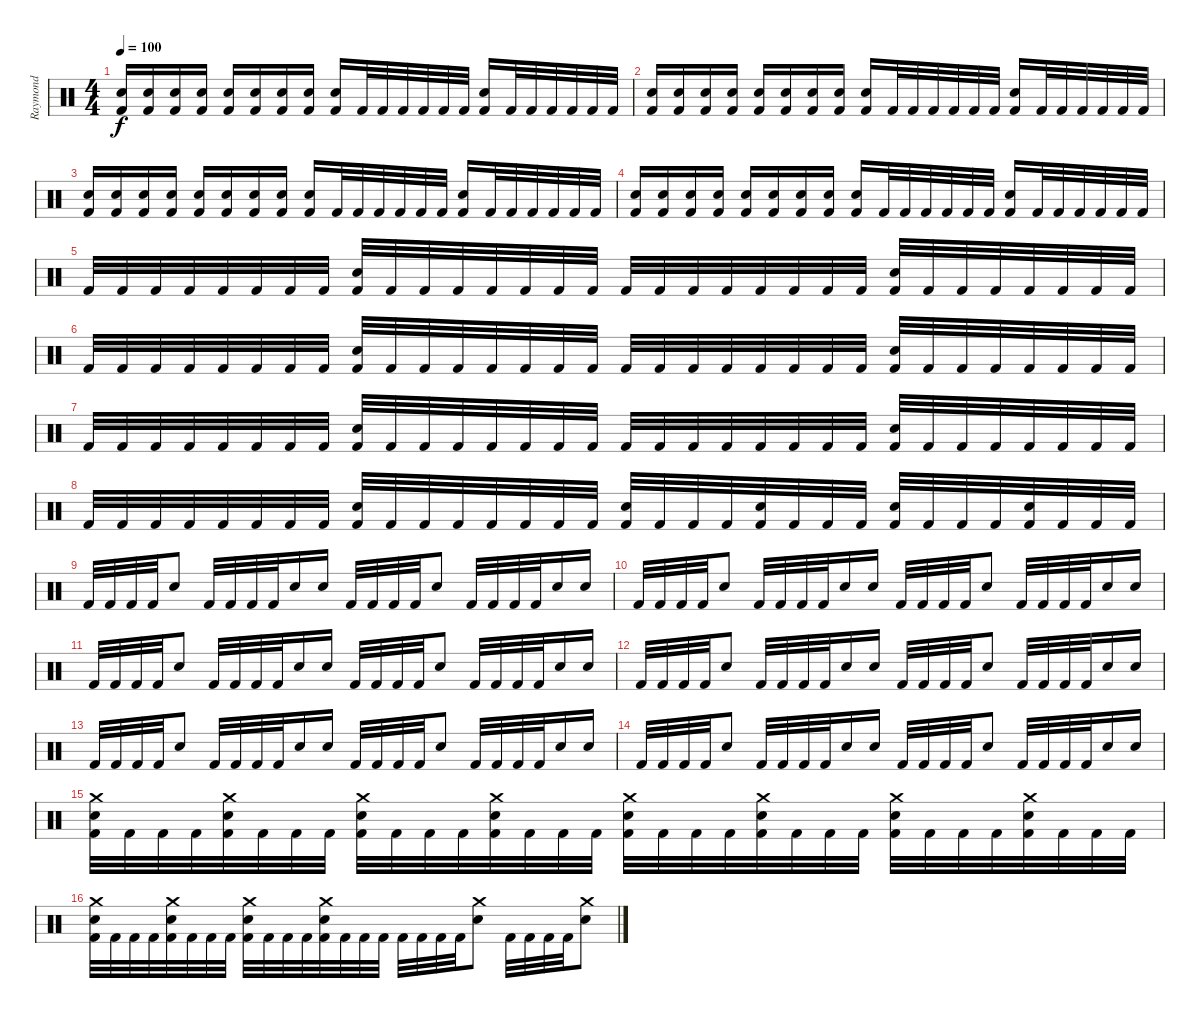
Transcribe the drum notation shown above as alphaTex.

\track ("Raymond" "Raymond") {instrument percussion}
\staff {score}
\articulation defaults
\ts (4 4)
\tempo 100
\clef neutral
\ks c
("Snare (hit) 2" "Kick (hit) 2").16{dy f} ("Snare (hit) 2" "Kick (hit) 2").16 ("Snare (hit) 2" "Kick (hit) 2").16 ("Snare (hit) 2" "Kick (hit) 2").16 ("Snare (hit) 2" "Kick (hit) 2").16 ("Snare (hit) 2" "Kick (hit) 2").16 ("Snare (hit) 2" "Kick (hit) 2").16 ("Snare (hit) 2" "Kick (hit) 2").16 ("Snare (hit) 2" "Kick (hit) 2").16 "Kick (hit) 2".32 "Kick (hit) 2".32 "Kick (hit) 2".32 "Kick (hit) 2".32 "Kick (hit) 2".32 "Kick (hit) 2".32 ("Snare (hit) 2" "Kick (hit) 2").16 "Kick (hit) 2".32 "Kick (hit) 2".32 "Kick (hit) 2".32 "Kick (hit) 2".32 "Kick (hit) 2".32 "Kick (hit) 2".32 |
("Snare (hit) 2" "Kick (hit) 2").16 ("Snare (hit) 2" "Kick (hit) 2").16 ("Snare (hit) 2" "Kick (hit) 2").16 ("Snare (hit) 2" "Kick (hit) 2").16 ("Snare (hit) 2" "Kick (hit) 2").16 ("Snare (hit) 2" "Kick (hit) 2").16 ("Snare (hit) 2" "Kick (hit) 2").16 ("Snare (hit) 2" "Kick (hit) 2").16 ("Snare (hit) 2" "Kick (hit) 2").16 "Kick (hit) 2".32 "Kick (hit) 2".32 "Kick (hit) 2".32 "Kick (hit) 2".32 "Kick (hit) 2".32 "Kick (hit) 2".32 ("Snare (hit) 2" "Kick (hit) 2").16 "Kick (hit) 2".32 "Kick (hit) 2".32 "Kick (hit) 2".32 "Kick (hit) 2".32 "Kick (hit) 2".32 "Kick (hit) 2".32 |
("Snare (hit) 2" "Kick (hit) 2").16 ("Snare (hit) 2" "Kick (hit) 2").16 ("Snare (hit) 2" "Kick (hit) 2").16 ("Snare (hit) 2" "Kick (hit) 2").16 ("Snare (hit) 2" "Kick (hit) 2").16 ("Snare (hit) 2" "Kick (hit) 2").16 ("Snare (hit) 2" "Kick (hit) 2").16 ("Snare (hit) 2" "Kick (hit) 2").16 ("Snare (hit) 2" "Kick (hit) 2").16 "Kick (hit) 2".32 "Kick (hit) 2".32 "Kick (hit) 2".32 "Kick (hit) 2".32 "Kick (hit) 2".32 "Kick (hit) 2".32 ("Snare (hit) 2" "Kick (hit) 2").16 "Kick (hit) 2".32 "Kick (hit) 2".32 "Kick (hit) 2".32 "Kick (hit) 2".32 "Kick (hit) 2".32 "Kick (hit) 2".32 |
("Snare (hit) 2" "Kick (hit) 2").16 ("Snare (hit) 2" "Kick (hit) 2").16 ("Snare (hit) 2" "Kick (hit) 2").16 ("Snare (hit) 2" "Kick (hit) 2").16 ("Snare (hit) 2" "Kick (hit) 2").16 ("Snare (hit) 2" "Kick (hit) 2").16 ("Snare (hit) 2" "Kick (hit) 2").16 ("Snare (hit) 2" "Kick (hit) 2").16 ("Snare (hit) 2" "Kick (hit) 2").16 "Kick (hit) 2".32 "Kick (hit) 2".32 "Kick (hit) 2".32 "Kick (hit) 2".32 "Kick (hit) 2".32 "Kick (hit) 2".32 ("Snare (hit) 2" "Kick (hit) 2").16 "Kick (hit) 2".32 "Kick (hit) 2".32 "Kick (hit) 2".32 "Kick (hit) 2".32 "Kick (hit) 2".32 "Kick (hit) 2".32 |
"Kick (hit) 2".32 "Kick (hit) 2".32 "Kick (hit) 2".32 "Kick (hit) 2".32 "Kick (hit) 2".32 "Kick (hit) 2".32 "Kick (hit) 2".32 "Kick (hit) 2".32 ("Snare (hit) 2" "Kick (hit) 2").32 "Kick (hit) 2".32 "Kick (hit) 2".32 "Kick (hit) 2".32 "Kick (hit) 2".32 "Kick (hit) 2".32 "Kick (hit) 2".32 "Kick (hit) 2".32 "Kick (hit) 2".32 "Kick (hit) 2".32 "Kick (hit) 2".32 "Kick (hit) 2".32 "Kick (hit) 2".32 "Kick (hit) 2".32 "Kick (hit) 2".32 "Kick (hit) 2".32 ("Snare (hit) 2" "Kick (hit) 2").32 "Kick (hit) 2".32 "Kick (hit) 2".32 "Kick (hit) 2".32 "Kick (hit) 2".32 "Kick (hit) 2".32 "Kick (hit) 2".32 "Kick (hit) 2".32 |
"Kick (hit) 2".32 "Kick (hit) 2".32 "Kick (hit) 2".32 "Kick (hit) 2".32 "Kick (hit) 2".32 "Kick (hit) 2".32 "Kick (hit) 2".32 "Kick (hit) 2".32 ("Snare (hit) 2" "Kick (hit) 2").32 "Kick (hit) 2".32 "Kick (hit) 2".32 "Kick (hit) 2".32 "Kick (hit) 2".32 "Kick (hit) 2".32 "Kick (hit) 2".32 "Kick (hit) 2".32 "Kick (hit) 2".32 "Kick (hit) 2".32 "Kick (hit) 2".32 "Kick (hit) 2".32 "Kick (hit) 2".32 "Kick (hit) 2".32 "Kick (hit) 2".32 "Kick (hit) 2".32 ("Snare (hit) 2" "Kick (hit) 2").32 "Kick (hit) 2".32 "Kick (hit) 2".32 "Kick (hit) 2".32 "Kick (hit) 2".32 "Kick (hit) 2".32 "Kick (hit) 2".32 "Kick (hit) 2".32 |
"Kick (hit) 2".32 "Kick (hit) 2".32 "Kick (hit) 2".32 "Kick (hit) 2".32 "Kick (hit) 2".32 "Kick (hit) 2".32 "Kick (hit) 2".32 "Kick (hit) 2".32 ("Snare (hit) 2" "Kick (hit) 2").32 "Kick (hit) 2".32 "Kick (hit) 2".32 "Kick (hit) 2".32 "Kick (hit) 2".32 "Kick (hit) 2".32 "Kick (hit) 2".32 "Kick (hit) 2".32 "Kick (hit) 2".32 "Kick (hit) 2".32 "Kick (hit) 2".32 "Kick (hit) 2".32 "Kick (hit) 2".32 "Kick (hit) 2".32 "Kick (hit) 2".32 "Kick (hit) 2".32 ("Snare (hit) 2" "Kick (hit) 2").32 "Kick (hit) 2".32 "Kick (hit) 2".32 "Kick (hit) 2".32 "Kick (hit) 2".32 "Kick (hit) 2".32 "Kick (hit) 2".32 "Kick (hit) 2".32 |
"Kick (hit) 2".32 "Kick (hit) 2".32 "Kick (hit) 2".32 "Kick (hit) 2".32 "Kick (hit) 2".32 "Kick (hit) 2".32 "Kick (hit) 2".32 "Kick (hit) 2".32 ("Snare (hit) 2" "Kick (hit) 2").32 "Kick (hit) 2".32 "Kick (hit) 2".32 "Kick (hit) 2".32 "Kick (hit) 2".32 "Kick (hit) 2".32 "Kick (hit) 2".32 "Kick (hit) 2".32 ("Snare (hit) 2" "Kick (hit) 2").32 "Kick (hit) 2".32 "Kick (hit) 2".32 "Kick (hit) 2".32 ("Snare (hit) 2" "Kick (hit) 2").32 "Kick (hit) 2".32 "Kick (hit) 2".32 "Kick (hit) 2".32 ("Snare (hit) 2" "Kick (hit) 2").32 "Kick (hit) 2".32 "Kick (hit) 2".32 "Kick (hit) 2".32 ("Snare (hit) 2" "Kick (hit) 2").32 "Kick (hit) 2".32 "Kick (hit) 2".32 "Kick (hit) 2".32 |
"Kick (hit) 2".32 "Kick (hit) 2".32 "Kick (hit) 2".32 "Kick (hit) 2".32 "Snare (hit) 2".8 "Kick (hit) 2".32 "Kick (hit) 2".32 "Kick (hit) 2".32 "Kick (hit) 2".32 "Snare (hit) 2".16 "Snare (hit) 2".16 "Kick (hit) 2".32 "Kick (hit) 2".32 "Kick (hit) 2".32 "Kick (hit) 2".32 "Snare (hit) 2".8 "Kick (hit) 2".32 "Kick (hit) 2".32 "Kick (hit) 2".32 "Kick (hit) 2".32 "Snare (hit) 2".16 "Snare (hit) 2".16 |
"Kick (hit) 2".32 "Kick (hit) 2".32 "Kick (hit) 2".32 "Kick (hit) 2".32 "Snare (hit) 2".8 "Kick (hit) 2".32 "Kick (hit) 2".32 "Kick (hit) 2".32 "Kick (hit) 2".32 "Snare (hit) 2".16 "Snare (hit) 2".16 "Kick (hit) 2".32 "Kick (hit) 2".32 "Kick (hit) 2".32 "Kick (hit) 2".32 "Snare (hit) 2".8 "Kick (hit) 2".32 "Kick (hit) 2".32 "Kick (hit) 2".32 "Kick (hit) 2".32 "Snare (hit) 2".16 "Snare (hit) 2".16 |
"Kick (hit) 2".32 "Kick (hit) 2".32 "Kick (hit) 2".32 "Kick (hit) 2".32 "Snare (hit) 2".8 "Kick (hit) 2".32 "Kick (hit) 2".32 "Kick (hit) 2".32 "Kick (hit) 2".32 "Snare (hit) 2".16 "Snare (hit) 2".16 "Kick (hit) 2".32 "Kick (hit) 2".32 "Kick (hit) 2".32 "Kick (hit) 2".32 "Snare (hit) 2".8 "Kick (hit) 2".32 "Kick (hit) 2".32 "Kick (hit) 2".32 "Kick (hit) 2".32 "Snare (hit) 2".16 "Snare (hit) 2".16 |
"Kick (hit) 2".32 "Kick (hit) 2".32 "Kick (hit) 2".32 "Kick (hit) 2".32 "Snare (hit) 2".8 "Kick (hit) 2".32 "Kick (hit) 2".32 "Kick (hit) 2".32 "Kick (hit) 2".32 "Snare (hit) 2".16 "Snare (hit) 2".16 "Kick (hit) 2".32 "Kick (hit) 2".32 "Kick (hit) 2".32 "Kick (hit) 2".32 "Snare (hit) 2".8 "Kick (hit) 2".32 "Kick (hit) 2".32 "Kick (hit) 2".32 "Kick (hit) 2".32 "Snare (hit) 2".16 "Snare (hit) 2".16 |
"Kick (hit) 2".32 "Kick (hit) 2".32 "Kick (hit) 2".32 "Kick (hit) 2".32 "Snare (hit) 2".8 "Kick (hit) 2".32 "Kick (hit) 2".32 "Kick (hit) 2".32 "Kick (hit) 2".32 "Snare (hit) 2".16 "Snare (hit) 2".16 "Kick (hit) 2".32 "Kick (hit) 2".32 "Kick (hit) 2".32 "Kick (hit) 2".32 "Snare (hit) 2".8 "Kick (hit) 2".32 "Kick (hit) 2".32 "Kick (hit) 2".32 "Kick (hit) 2".32 "Snare (hit) 2".16 "Snare (hit) 2".16 |
"Kick (hit) 2".32 "Kick (hit) 2".32 "Kick (hit) 2".32 "Kick (hit) 2".32 "Snare (hit) 2".8 "Kick (hit) 2".32 "Kick (hit) 2".32 "Kick (hit) 2".32 "Kick (hit) 2".32 "Snare (hit) 2".16 "Snare (hit) 2".16 "Kick (hit) 2".32 "Kick (hit) 2".32 "Kick (hit) 2".32 "Kick (hit) 2".32 "Snare (hit) 2".8 "Kick (hit) 2".32 "Kick (hit) 2".32 "Kick (hit) 2".32 "Kick (hit) 2".32 "Snare (hit) 2".16 "Snare (hit) 2".16 |
("Crash medium (hit)" "Snare (hit) 2" "Kick (hit) 2").32 "Kick (hit) 2".32 "Kick (hit) 2".32 "Kick (hit) 2".32 ("Crash medium (hit)" "Snare (hit) 2" "Kick (hit) 2").32 "Kick (hit) 2".32 "Kick (hit) 2".32 "Kick (hit) 2".32 ("Crash medium (hit)" "Snare (hit) 2" "Kick (hit) 2").32 "Kick (hit) 2".32 "Kick (hit) 2".32 "Kick (hit) 2".32 ("Crash medium (hit)" "Snare (hit) 2" "Kick (hit) 2").32 "Kick (hit) 2".32 "Kick (hit) 2".32 "Kick (hit) 2".32 ("Crash medium (hit)" "Snare (hit) 2" "Kick (hit) 2").32 "Kick (hit) 2".32 "Kick (hit) 2".32 "Kick (hit) 2".32 ("Crash medium (hit)" "Snare (hit) 2" "Kick (hit) 2").32 "Kick (hit) 2".32 "Kick (hit) 2".32 "Kick (hit) 2".32 ("Crash medium (hit)" "Snare (hit) 2" "Kick (hit) 2").32 "Kick (hit) 2".32 "Kick (hit) 2".32 "Kick (hit) 2".32 ("Crash medium (hit)" "Snare (hit) 2" "Kick (hit) 2").32 "Kick (hit) 2".32 "Kick (hit) 2".32 "Kick (hit) 2".32 |
("Crash medium (hit)" "Snare (hit) 2" "Kick (hit) 2").32 "Kick (hit) 2".32 "Kick (hit) 2".32 "Kick (hit) 2".32 ("Crash medium (hit)" "Snare (hit) 2" "Kick (hit) 2").32 "Kick (hit) 2".32 "Kick (hit) 2".32 "Kick (hit) 2".32 ("Crash medium (hit)" "Snare (hit) 2" "Kick (hit) 2").32 "Kick (hit) 2".32 "Kick (hit) 2".32 "Kick (hit) 2".32 ("Crash medium (hit)" "Snare (hit) 2" "Kick (hit) 2").32 "Kick (hit) 2".32 "Kick (hit) 2".32 "Kick (hit) 2".32 "Kick (hit) 2".32 "Kick (hit) 2".32 "Kick (hit) 2".32 "Kick (hit) 2".32 ("Crash medium (hit)" "Snare (hit) 2").8 "Kick (hit) 2".32 "Kick (hit) 2".32 "Kick (hit) 2".32 "Kick (hit) 2".32 ("Crash medium (hit)" "Snare (hit) 2").8
